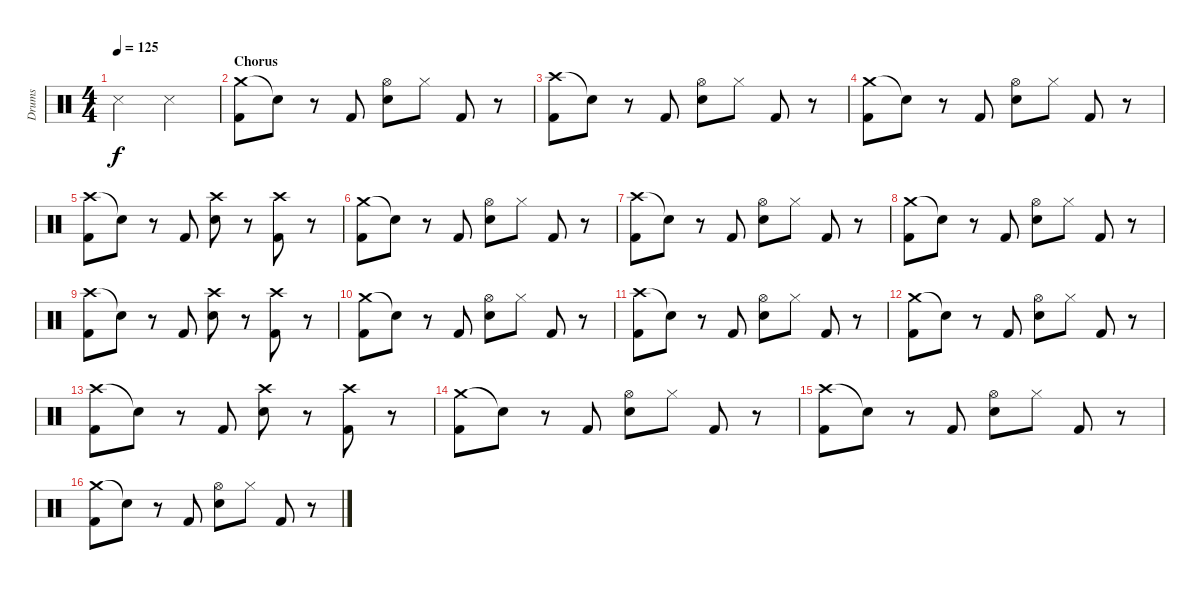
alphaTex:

\track ("Drums" "Drums") {instrument percussion}
\staff {score}
\articulation defaults
\ts (4 4)
\tempo 125
\clef neutral
\ks c "Snare (side stick) 3".2{dy f} "Snare (side stick) 3".2
|
\section ("" "Chorus")
("Crash medium (hit)" "Kick (hit) 2").8 "Snare (hit)"{t}.8 r.8 "Kick (hit) 2".8 ("Hi-Hat (open)" "Electric Snare (hit)").8 "Hi-Hat (closed)".8 "Kick (hit) 2".8 r.8 |
("Crash high (hit)" "Kick (hit) 2").8 "Snare (hit)"{t}.8 r.8 "Kick (hit) 2".8 ("Hi-Hat (open)" "Electric Snare (hit)").8 "Hi-Hat (closed)".8 "Kick (hit) 2".8 r.8 |
("Crash medium (hit)" "Kick (hit) 2").8 "Snare (hit)"{t}.8 r.8 "Kick (hit) 2".8 ("Hi-Hat (open)" "Electric Snare (hit)").8 "Hi-Hat (closed)".8 "Kick (hit) 2".8 r.8 |
("Crash high (hit)" "Kick (hit) 2").8 "Snare (hit)"{t}.8 r.8 "Kick (hit) 2".8 ("Crash high (hit)" "Electric Snare (hit)").8 r.8 ("Crash high (hit)" "Kick (hit) 2").8 r.8 |
("Crash medium (hit)" "Kick (hit) 2").8 "Snare (hit)"{t}.8 r.8 "Kick (hit) 2".8 ("Hi-Hat (open)" "Electric Snare (hit)").8 "Hi-Hat (closed)".8 "Kick (hit) 2".8 r.8 |
("Crash high (hit)" "Kick (hit) 2").8 "Snare (hit)"{t}.8 r.8 "Kick (hit) 2".8 ("Hi-Hat (open)" "Electric Snare (hit)").8 "Hi-Hat (closed)".8 "Kick (hit) 2".8 r.8 |
("Crash medium (hit)" "Kick (hit) 2").8 "Snare (hit)"{t}.8 r.8 "Kick (hit) 2".8 ("Hi-Hat (open)" "Electric Snare (hit)").8 "Hi-Hat (closed)".8 "Kick (hit) 2".8 r.8 |
("Crash high (hit)" "Kick (hit) 2").8 "Snare (hit)"{t}.8 r.8 "Kick (hit) 2".8 ("Crash high (hit)" "Electric Snare (hit)").8 r.8 ("Crash high (hit)" "Kick (hit) 2").8 r.8 |
("Crash medium (hit)" "Kick (hit) 2").8 "Snare (hit)"{t}.8 r.8 "Kick (hit) 2".8 ("Hi-Hat (open)" "Electric Snare (hit)").8 "Hi-Hat (closed)".8 "Kick (hit) 2".8 r.8 |
("Crash high (hit)" "Kick (hit) 2").8 "Snare (hit)"{t}.8 r.8 "Kick (hit) 2".8 ("Hi-Hat (open)" "Electric Snare (hit)").8 "Hi-Hat (closed)".8 "Kick (hit) 2".8 r.8 |
("Crash medium (hit)" "Kick (hit) 2").8 "Snare (hit)"{t}.8 r.8 "Kick (hit) 2".8 ("Hi-Hat (open)" "Electric Snare (hit)").8 "Hi-Hat (closed)".8 "Kick (hit) 2".8 r.8 |
("Crash high (hit)" "Kick (hit) 2").8 "Snare (hit)"{t}.8 r.8 "Kick (hit) 2".8 ("Crash high (hit)" "Electric Snare (hit)").8 r.8 ("Crash high (hit)" "Kick (hit) 2").8 r.8 |
("Crash medium (hit)" "Kick (hit) 2").8 "Snare (hit)"{t}.8 r.8 "Kick (hit) 2".8 ("Hi-Hat (open)" "Electric Snare (hit)").8 "Hi-Hat (closed)".8 "Kick (hit) 2".8 r.8 |
("Crash high (hit)" "Kick (hit) 2").8 "Snare (hit)"{t}.8 r.8 "Kick (hit) 2".8 ("Hi-Hat (open)" "Electric Snare (hit)").8 "Hi-Hat (closed)".8 "Kick (hit) 2".8 r.8 |
("Crash medium (hit)" "Kick (hit) 2").8 "Snare (hit)"{t}.8 r.8 "Kick (hit) 2".8 ("Hi-Hat (open)" "Electric Snare (hit)").8 "Hi-Hat (closed)".8 "Kick (hit) 2".8 r.8
